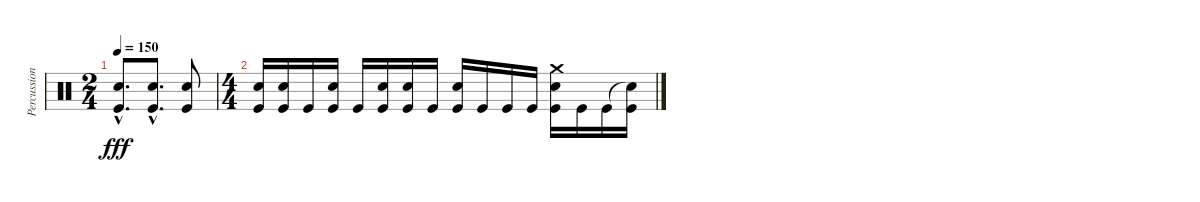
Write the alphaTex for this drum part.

\track ("Percussions" "Percussion") {instrument percussion}
\staff {score}
\articulation defaults
\ts (2 4)
\tempo 150
\clef neutral
\ks c
("Snare (hit) 2"{hac} "Kick (hit)"{hac}).8{d dy fff} ("Snare (hit) 2"{hac} "Kick (hit)"{hac}).8{d} ("Snare (hit) 2" "Kick (hit)").8 |
\ts (4 4)
("Snare (hit) 2" "Kick (hit)").16 ("Snare (hit) 2" "Kick (hit)").16 "Kick (hit)".16 ("Snare (hit) 2" "Kick (hit)").16 "Kick (hit)".16 ("Snare (hit) 2" "Kick (hit)").16 ("Snare (hit) 2" "Kick (hit)").16 "Kick (hit)".16 ("Snare (hit) 2" "Kick (hit)").16 "Kick (hit)".16 "Kick (hit)".16 "Kick (hit)".16 ("Crash medium (hit)" "Snare (hit) 2" "Kick (hit)").16 "Kick (hit)".16 "Kick (hit)".16 ("Snare (hit)"{t} "Kick (hit)").16
